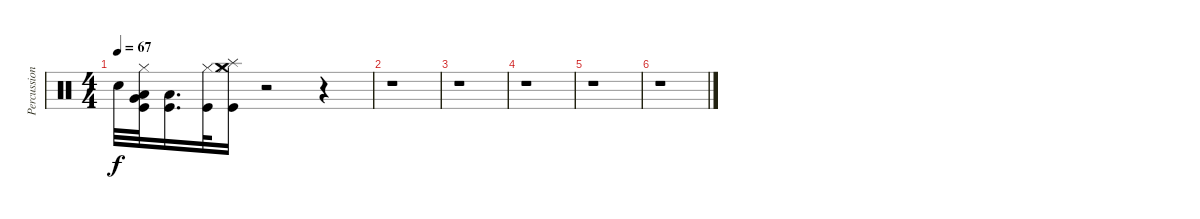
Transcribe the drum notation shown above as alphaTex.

\track ("Percussion" "Percussion") {instrument percussion}
\staff {score}
\articulation defaults
\ts (4 4)
\tempo 67
\clef neutral
\ks c "Snare (hit)"{t}.32{dy f}
("Kick (hit)" "Very Low Tom (hit)" "Hi-Hat (closed)" "Low Tom (hit)").32 ("Kick (hit)" "Low Tom (hit)").16{d} ("Kick (hit)" "Hi-Hat (closed)").32 ("Hi-Hat (closed)" "Kick (hit)" "Crash medium (hit)" "Splash (hit)").16 r.2 r.4 |
r.1 |
r.1 |
r.1 |
r.1 |
r.1
